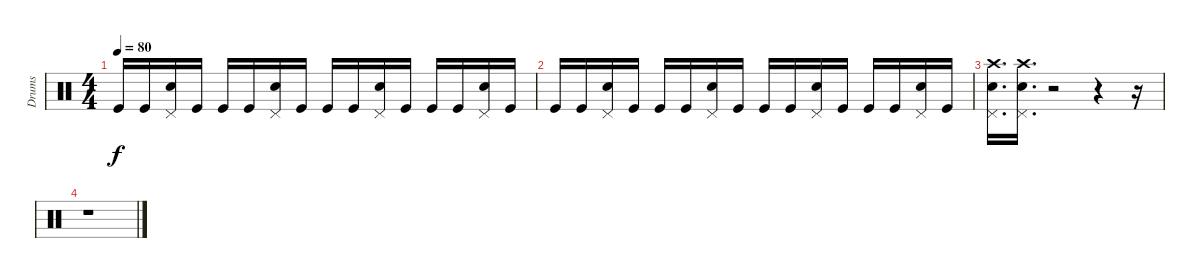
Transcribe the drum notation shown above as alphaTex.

\track ("Drums" "Drums") {instrument percussion}
\staff {score}
\articulation defaults
\ts (4 4)
\tempo 80
\clef neutral
\ks c "Kick (hit)".16{dy f} "Kick (hit)".16
("Snare (hit) 2" "Pedal Hi-Hat (hit)").16 "Kick (hit)".16 "Kick (hit)".16 "Kick (hit)".16 ("Snare (hit) 2" "Pedal Hi-Hat (hit)").16 "Kick (hit)".16 "Kick (hit)".16 "Kick (hit)".16 ("Snare (hit) 2" "Pedal Hi-Hat (hit)").16 "Kick (hit)".16 "Kick (hit)".16 "Kick (hit)".16 ("Snare (hit) 2" "Pedal Hi-Hat (hit)").16 "Kick (hit)".16 |
"Kick (hit)".16 "Kick (hit)".16 ("Snare (hit) 2" "Pedal Hi-Hat (hit)").16 "Kick (hit)".16 "Kick (hit)".16 "Kick (hit)".16 ("Snare (hit) 2" "Pedal Hi-Hat (hit)").16 "Kick (hit)".16 "Kick (hit)".16 "Kick (hit)".16 ("Snare (hit) 2" "Pedal Hi-Hat (hit)").16 "Kick (hit)".16 "Kick (hit)".16 "Kick (hit)".16 ("Snare (hit) 2" "Pedal Hi-Hat (hit)").16 "Kick (hit)".16 |
("Snare (hit) 2" "Pedal Hi-Hat (hit)" "Crash high (hit)").16{d} ("Snare (hit) 2" "Pedal Hi-Hat (hit)" "Crash high (hit)").16{d} r.2 r.4 r.16 |
r.1
